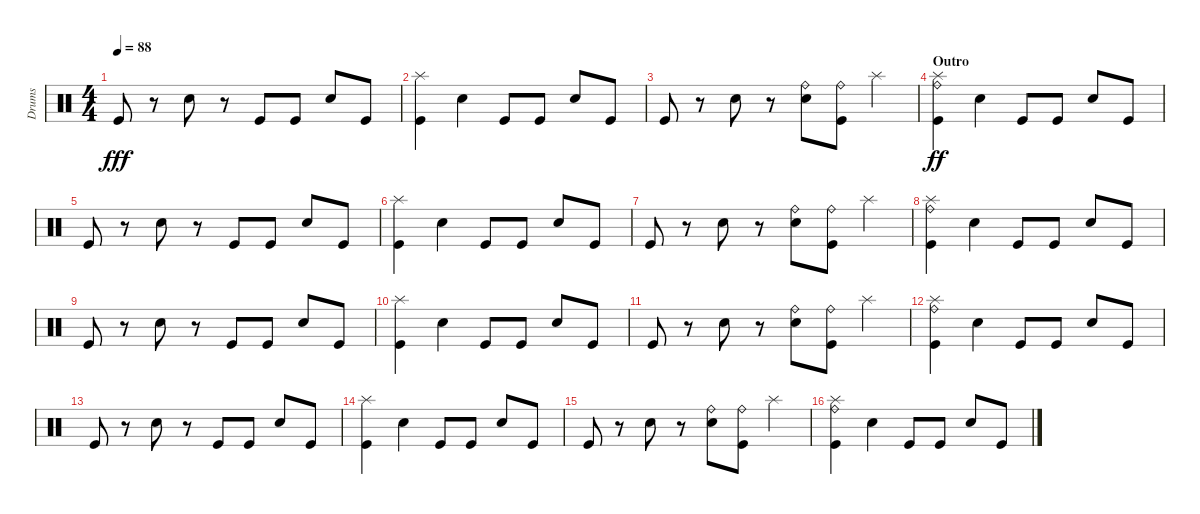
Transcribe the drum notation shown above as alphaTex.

\track ("Drums" "Drums") {instrument percussion}
\staff {score}
\articulation defaults
\ts (4 4)
\tempo 88
\clef neutral
\ks c "Kick (hit)".8{dy fff}
r.8 "Snare (hit) 2".8 r.8 "Kick (hit)".8 "Kick (hit)".8 "Snare (hit) 2".8 "Kick (hit)".8 |
("Kick (hit)" "Splash (hit)").4 "Snare (hit) 2".4 "Kick (hit)".8 "Kick (hit)".8 "Snare (hit) 2".8 "Kick (hit)".8 |
"Kick (hit)".8 r.8 "Snare (hit) 2".8 r.8 ("Snare (hit) 2" "Ride (bell)").8 ("Kick (hit)" "Ride (bell)").8 "Splash (hit)".4 |
\section ("" "Outro")
("Kick (hit)" "Splash (hit)" "Ride (bell)").4{dy ff} "Snare (hit) 2".4 "Kick (hit)".8 "Kick (hit)".8 "Snare (hit) 2".8 "Kick (hit)".8 |
"Kick (hit)".8 r.8 "Snare (hit) 2".8 r.8 "Kick (hit)".8 "Kick (hit)".8 "Snare (hit) 2".8 "Kick (hit)".8 |
("Kick (hit)" "Splash (hit)").4 "Snare (hit) 2".4 "Kick (hit)".8 "Kick (hit)".8 "Snare (hit) 2".8 "Kick (hit)".8 |
"Kick (hit)".8 r.8 "Snare (hit) 2".8 r.8 ("Snare (hit) 2" "Ride (bell)").8 ("Kick (hit)" "Ride (bell)").8 "Splash (hit)".4 |
("Kick (hit)" "Splash (hit)" "Ride (bell)").4 "Snare (hit) 2".4 "Kick (hit)".8 "Kick (hit)".8 "Snare (hit) 2".8 "Kick (hit)".8 |
"Kick (hit)".8 r.8 "Snare (hit) 2".8 r.8 "Kick (hit)".8 "Kick (hit)".8 "Snare (hit) 2".8 "Kick (hit)".8 |
("Kick (hit)" "Splash (hit)").4 "Snare (hit) 2".4 "Kick (hit)".8 "Kick (hit)".8 "Snare (hit) 2".8 "Kick (hit)".8 |
"Kick (hit)".8 r.8 "Snare (hit) 2".8 r.8 ("Snare (hit) 2" "Ride (bell)").8 ("Kick (hit)" "Ride (bell)").8 "Splash (hit)".4 |
("Kick (hit)" "Splash (hit)" "Ride (bell)").4 "Snare (hit) 2".4 "Kick (hit)".8 "Kick (hit)".8 "Snare (hit) 2".8 "Kick (hit)".8 |
"Kick (hit)".8 r.8 "Snare (hit) 2".8 r.8 "Kick (hit)".8 "Kick (hit)".8 "Snare (hit) 2".8 "Kick (hit)".8 |
("Kick (hit)" "Splash (hit)").4 "Snare (hit) 2".4 "Kick (hit)".8 "Kick (hit)".8 "Snare (hit) 2".8 "Kick (hit)".8 |
"Kick (hit)".8 r.8 "Snare (hit) 2".8 r.8 ("Snare (hit) 2" "Ride (bell)").8 ("Kick (hit)" "Ride (bell)").8 "Splash (hit)".4 |
("Kick (hit)" "Splash (hit)" "Ride (bell)").4 "Snare (hit) 2".4 "Kick (hit)".8 "Kick (hit)".8 "Snare (hit) 2".8 "Kick (hit)".8
